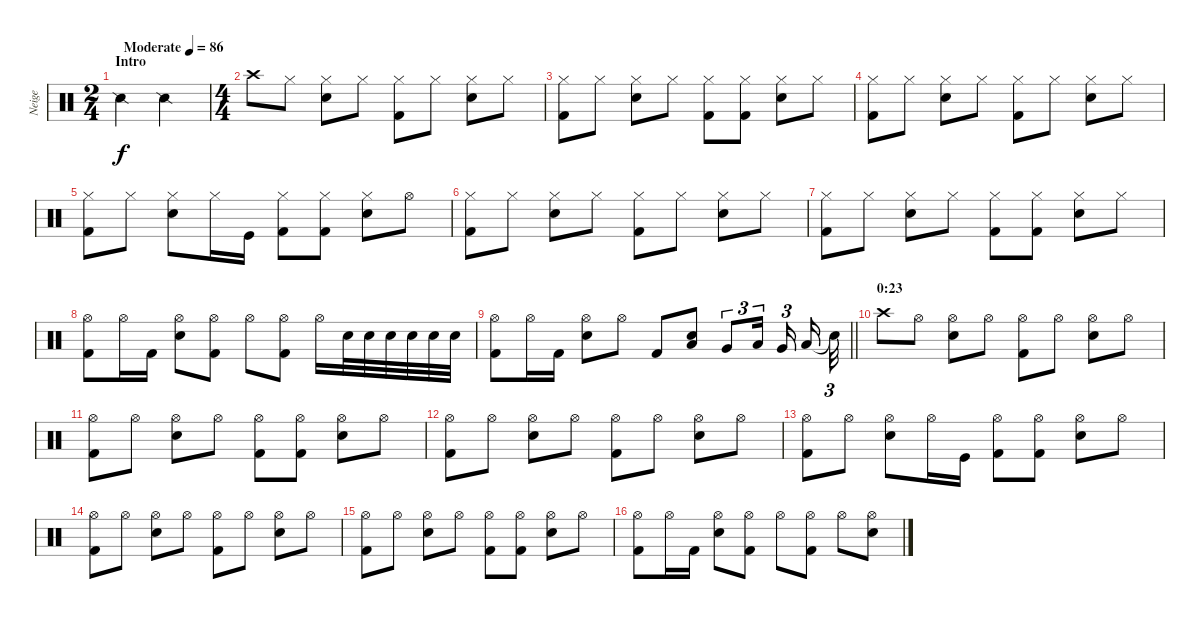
\track ("Neige" "Neige") {instrument percussion}
\staff {score}
\articulation defaults
\ts (2 4)
\section ("" "Intro")
\tempo (86 "Moderate")
\clef neutral
\ks c "Snare (side stick) 2".4{dy f} "Snare (side stick) 2".4
|
\ts (4 4)
"Crash high (hit)".8 "Hi-Hat (closed)".8 ("Snare (hit) 2" "Hi-Hat (closed)").8 "Hi-Hat (closed)".8 ("Hi-Hat (closed)" "Kick (hit) 2").8 "Hi-Hat (closed)".8 ("Snare (hit) 2" "Hi-Hat (closed)").8 "Hi-Hat (closed)".8 |
("Hi-Hat (closed)" "Kick (hit) 2").8 "Hi-Hat (closed)".8 ("Snare (hit) 2" "Hi-Hat (closed)").8 "Hi-Hat (closed)".8 ("Hi-Hat (closed)" "Kick (hit) 2").8 ("Hi-Hat (closed)" "Kick (hit) 2").8 ("Snare (hit) 2" "Hi-Hat (closed)").8 "Hi-Hat (closed)".8 |
("Hi-Hat (closed)" "Kick (hit) 2").8 "Hi-Hat (closed)".8 ("Snare (hit) 2" "Hi-Hat (closed)").8 "Hi-Hat (closed)".8 ("Hi-Hat (closed)" "Kick (hit) 2").8 "Hi-Hat (closed)".8 ("Snare (hit) 2" "Hi-Hat (closed)").8 "Hi-Hat (closed)".8 |
("Hi-Hat (closed)" "Kick (hit) 2").8 "Hi-Hat (closed)".8 ("Snare (hit) 2" "Hi-Hat (closed)").8 "Hi-Hat (closed)".16 "Kick (hit)".16 ("Hi-Hat (closed)" "Kick (hit) 2").8 ("Hi-Hat (closed)" "Kick (hit) 2").8 ("Snare (hit) 2" "Hi-Hat (closed)").8 "Hi-Hat (open)".8 |
("Hi-Hat (closed)" "Kick (hit) 2").8 "Hi-Hat (closed)".8 ("Snare (hit) 2" "Hi-Hat (closed)").8 "Hi-Hat (closed)".8 ("Hi-Hat (closed)" "Kick (hit) 2").8 "Hi-Hat (closed)".8 ("Snare (hit) 2" "Hi-Hat (closed)").8 "Hi-Hat (closed)".8 |
("Hi-Hat (closed)" "Kick (hit) 2").8 "Hi-Hat (closed)".8 ("Snare (hit) 2" "Hi-Hat (closed)").8 "Hi-Hat (closed)".8 ("Hi-Hat (closed)" "Kick (hit) 2").8 ("Hi-Hat (closed)" "Kick (hit) 2").8 ("Snare (hit) 2" "Hi-Hat (closed)").8 "Hi-Hat (closed)".8 |
("Hi-Hat (open)" "Kick (hit) 2").8 "Hi-Hat (open)".16 "Kick (hit) 2".16 ("Snare (hit) 2" "Hi-Hat (open)").8 ("Hi-Hat (open)" "Kick (hit) 2").8 "Hi-Hat (open)".8 ("Hi-Hat (open)" "Kick (hit) 2").8 "Hi-Hat (open)".16 "Snare (hit) 2".32 "Snare (hit) 2".32 "Snare (hit) 2".32 "Snare (hit) 2".32 "Snare (hit) 2".32 "Snare (hit) 2".32 |
\barLineRight lightlight
("Hi-Hat (open)" "Kick (hit) 2").8 "Hi-Hat (open)".16 "Kick (hit) 2".16 ("Snare (hit) 2" "Hi-Hat (open)").8 "Hi-Hat (open)".8 "Kick (hit) 2".8 ("Snare (hit) 2" "Low Tom (hit)").8 "Very Low Tom (hit)".8{tu (3 2)} "Low Tom (hit)".16{tu (3 2) beam splitsecondary} "Very Low Tom (hit)".16{tu (3 2) beam splitsecondary} "Low Floor Tom (hit)".16 "Snare (hit)"{t}.32{tu (3 2)} |
\section ("" "0:23")
"Crash high (hit)".8 "Hi-Hat (open)".8 ("Snare (hit) 2" "Hi-Hat (open)").8 "Hi-Hat (open)".8 ("Hi-Hat (open)" "Kick (hit) 2").8 "Hi-Hat (open)".8 ("Snare (hit) 2" "Hi-Hat (open)").8 "Hi-Hat (open)".8 |
("Hi-Hat (open)" "Kick (hit) 2").8 "Hi-Hat (open)".8 ("Snare (hit) 2" "Hi-Hat (open)").8 "Hi-Hat (open)".8 ("Hi-Hat (open)" "Kick (hit) 2").8 ("Hi-Hat (open)" "Kick (hit) 2").8 ("Snare (hit) 2" "Hi-Hat (open)").8 "Hi-Hat (open)".8 |
("Hi-Hat (open)" "Kick (hit) 2").8 "Hi-Hat (open)".8 ("Snare (hit) 2" "Hi-Hat (open)").8 "Hi-Hat (open)".8 ("Hi-Hat (open)" "Kick (hit) 2").8 "Hi-Hat (open)".8 ("Snare (hit) 2" "Hi-Hat (open)").8 "Hi-Hat (open)".8 |
("Hi-Hat (open)" "Kick (hit) 2").8 "Hi-Hat (open)".8 ("Snare (hit) 2" "Hi-Hat (open)").8 "Hi-Hat (open)".16 "Kick (hit)".16 ("Hi-Hat (open)" "Kick (hit) 2").8 ("Hi-Hat (open)" "Kick (hit) 2").8 ("Snare (hit) 2" "Hi-Hat (open)").8 "Hi-Hat (open)".8 |
("Hi-Hat (open)" "Kick (hit) 2").8 "Hi-Hat (open)".8 ("Snare (hit) 2" "Hi-Hat (open)").8 "Hi-Hat (open)".8 ("Hi-Hat (open)" "Kick (hit) 2").8 "Hi-Hat (open)".8 ("Snare (hit) 2" "Hi-Hat (open)").8 "Hi-Hat (open)".8 |
("Hi-Hat (open)" "Kick (hit) 2").8 "Hi-Hat (open)".8 ("Snare (hit) 2" "Hi-Hat (open)").8 "Hi-Hat (open)".8 ("Hi-Hat (open)" "Kick (hit) 2").8 ("Hi-Hat (open)" "Kick (hit) 2").8 ("Snare (hit) 2" "Hi-Hat (open)").8 "Hi-Hat (open)".8 |
("Hi-Hat (open)" "Kick (hit) 2").8 "Hi-Hat (open)".16 "Kick (hit) 2".16 ("Snare (hit) 2" "Hi-Hat (open)").8 ("Hi-Hat (open)" "Kick (hit) 2").8 "Hi-Hat (open)".8 ("Hi-Hat (open)" "Kick (hit) 2").8 "Hi-Hat (open)".8 ("Snare (hit) 2" "Hi-Hat (open)").8
